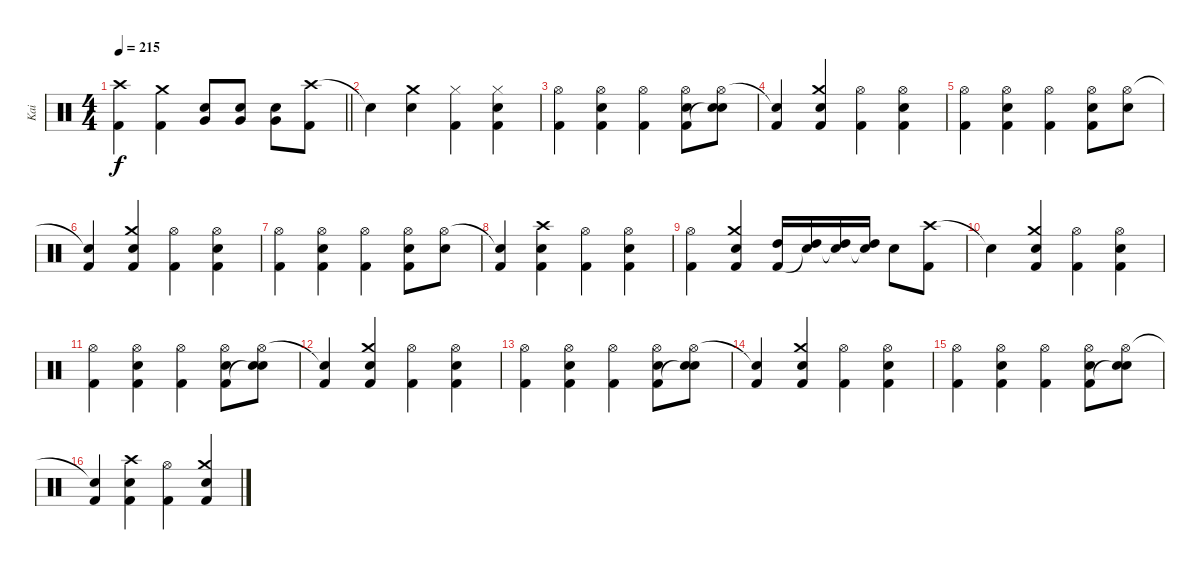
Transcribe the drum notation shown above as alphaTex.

\track ("Kai" "Kai") {instrument percussion}
\staff {score}
\articulation defaults
\ts (4 4)
\tempo 215
\clef neutral
\barLineRight lightlight
\ks c
("Crash high (hit)" "Kick (hit) 2").4{dy f} ("Crash medium (hit)" "Kick (hit) 2").4 ("Snare (hit) 2" "Very Low Tom (hit)").8 ("Snare (hit) 2" "Very Low Tom (hit)").8 ("Snare (hit) 2" "Very Low Tom (hit)").8 ("Crash high (hit)" "Kick (hit) 2").8 |
"Snare (hit)"{t}.4 ("Crash medium (hit)" "Snare (hit) 2").4 ("Hi-Hat (closed)" "Kick (hit) 2").4 ("Hi-Hat (closed)" "Snare (hit) 2" "Kick (hit) 2").4 |
("Hi-Hat (open)" "Kick (hit) 2").4 ("Hi-Hat (open)" "Snare (hit) 2" "Kick (hit) 2").4 ("Hi-Hat (open)" "Kick (hit) 2").4 ("Hi-Hat (open)" "Snare (hit) 2" "Kick (hit) 2").8 ("Hi-Hat (open)" "Snare (hit) 2" "Snare (hit)"{t}).8 |
("Snare (hit)"{t} "Kick (hit) 2").4 ("Crash medium (hit)" "Snare (hit) 2" "Kick (hit) 2").4 ("Hi-Hat (open)" "Kick (hit) 2").4 ("Hi-Hat (open)" "Snare (hit) 2" "Kick (hit) 2").4 |
("Hi-Hat (open)" "Kick (hit) 2").4 ("Hi-Hat (open)" "Snare (hit) 2" "Kick (hit) 2").4 ("Hi-Hat (open)" "Kick (hit) 2").4 ("Hi-Hat (open)" "Snare (hit) 2" "Kick (hit) 2").8 ("Hi-Hat (open)" "Snare (hit) 2").8 |
("Snare (hit)"{t} "Kick (hit) 2").4 ("Crash medium (hit)" "Snare (hit) 2" "Kick (hit) 2").4 ("Hi-Hat (open)" "Kick (hit) 2").4 ("Hi-Hat (open)" "Snare (hit) 2" "Kick (hit) 2").4 |
("Hi-Hat (open)" "Kick (hit) 2").4 ("Hi-Hat (open)" "Snare (hit) 2" "Kick (hit) 2").4 ("Hi-Hat (open)" "Kick (hit) 2").4 ("Hi-Hat (open)" "Snare (hit) 2" "Kick (hit) 2").8 ("Hi-Hat (open)" "Snare (hit) 2").8 |
("Snare (hit)"{t} "Kick (hit) 2").4 ("Crash high (hit)" "Snare (hit) 2" "Kick (hit) 2").4 ("Hi-Hat (open)" "Kick (hit) 2").4 ("Hi-Hat (open)" "Snare (hit) 2" "Kick (hit) 2").4 |
("Hi-Hat (open)" "Kick (hit) 2").4 ("Crash medium (hit)" "Snare (hit) 2" "Kick (hit) 2").4 ("High Tom (hit)" "Kick (hit) 2").16 ("High Tom (hit)" "Snare (hit)"{t}).16 ("High Tom (hit)" "Snare (hit)"{t}).16 ("High Tom (hit)" "Snare (hit)"{t}).16 "Snare (hit) 2".8 ("Crash high (hit)" "Kick (hit) 2").8 |
"Snare (hit)"{t}.4 ("Crash medium (hit)" "Snare (hit) 2" "Kick (hit) 2").4 ("Hi-Hat (open)" "Kick (hit) 2").4 ("Hi-Hat (open)" "Snare (hit) 2" "Kick (hit) 2").4 |
("Hi-Hat (open)" "Kick (hit) 2").4 ("Hi-Hat (open)" "Snare (hit) 2" "Kick (hit) 2").4 ("Hi-Hat (open)" "Kick (hit) 2").4 ("Hi-Hat (open)" "Snare (hit) 2" "Kick (hit) 2").8 ("Hi-Hat (open)" "Snare (hit) 2" "Snare (hit)"{t}).8 |
("Snare (hit)"{t} "Kick (hit) 2").4 ("Crash medium (hit)" "Snare (hit) 2" "Kick (hit) 2").4 ("Hi-Hat (open)" "Kick (hit) 2").4 ("Hi-Hat (open)" "Snare (hit) 2" "Kick (hit) 2").4 |
("Hi-Hat (open)" "Kick (hit) 2").4 ("Hi-Hat (open)" "Snare (hit) 2" "Kick (hit) 2").4 ("Hi-Hat (open)" "Kick (hit) 2").4 ("Hi-Hat (open)" "Snare (hit) 2" "Kick (hit) 2").8 ("Hi-Hat (open)" "Snare (hit) 2" "Snare (hit)"{t}).8 |
("Snare (hit)"{t} "Kick (hit) 2").4 ("Crash medium (hit)" "Snare (hit) 2" "Kick (hit) 2").4 ("Hi-Hat (open)" "Kick (hit) 2").4 ("Hi-Hat (open)" "Snare (hit) 2" "Kick (hit) 2").4 |
("Hi-Hat (open)" "Kick (hit) 2").4 ("Hi-Hat (open)" "Snare (hit) 2" "Kick (hit) 2").4 ("Hi-Hat (open)" "Kick (hit) 2").4 ("Hi-Hat (open)" "Snare (hit) 2" "Kick (hit) 2").8 ("Hi-Hat (open)" "Snare (hit) 2" "Snare (hit)"{t}).8 |
("Snare (hit)"{t} "Kick (hit) 2").4 ("Crash high (hit)" "Snare (hit) 2" "Kick (hit) 2").4 ("Hi-Hat (open)" "Kick (hit) 2").4 ("Crash medium (hit)" "Snare (hit) 2" "Kick (hit) 2").4
